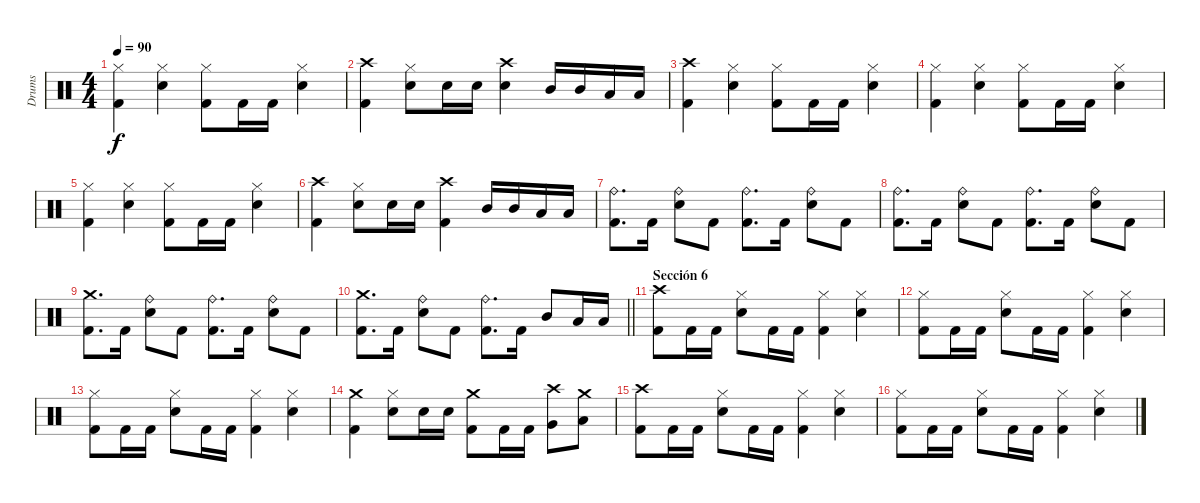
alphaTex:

\track ("Drums" "Drums") {instrument percussion}
\staff {score}
\articulation defaults
\ts (4 4)
\tempo 90
\clef neutral
\ks c
("Hi-Hat (closed)" "Kick (hit) 2").4{dy f} ("Hi-Hat (closed)" "Snare (hit) 2").4 ("Hi-Hat (closed)" "Kick (hit) 2").8 "Kick (hit) 2".16 "Kick (hit) 2".16 ("Hi-Hat (closed)" "Snare (hit) 2").4 |
("Crash high (hit)" "Kick (hit) 2").4 ("Hi-Hat (closed)" "Snare (hit) 2").8 "Snare (hit) 2".16 "Snare (hit) 2".16 ("Crash high (hit)" "Snare (hit) 2").4 "Mid Tom (hit)".16 "Mid Tom (hit)".16 "Low Tom (hit)".16 "Low Tom (hit)".16 |
("Crash high (hit)" "Kick (hit) 2").4 ("Hi-Hat (closed)" "Snare (hit) 2").4 ("Hi-Hat (closed)" "Kick (hit) 2").8 "Kick (hit) 2".16 "Kick (hit) 2".16 ("Hi-Hat (closed)" "Snare (hit) 2").4 |
("Hi-Hat (closed)" "Kick (hit) 2").4 ("Hi-Hat (closed)" "Snare (hit) 2").4 ("Hi-Hat (closed)" "Kick (hit) 2").8 "Kick (hit) 2".16 "Kick (hit) 2".16 ("Hi-Hat (closed)" "Snare (hit) 2").4 |
("Hi-Hat (closed)" "Kick (hit) 2").4 ("Hi-Hat (closed)" "Snare (hit) 2").4 ("Hi-Hat (closed)" "Kick (hit) 2").8 "Kick (hit) 2".16 "Kick (hit) 2".16 ("Hi-Hat (closed)" "Snare (hit) 2").4 |
("Crash high (hit)" "Kick (hit) 2").4 ("Hi-Hat (closed)" "Snare (hit) 2").8 "Snare (hit) 2".16 "Snare (hit) 2".16 ("Crash high (hit)" "Kick (hit) 2").4 "Mid Tom (hit)".16 "Mid Tom (hit)".16 "Low Tom (hit)".16 "Low Tom (hit)".16 |
("Ride (bell)" "Kick (hit) 2").8{d} "Kick (hit) 2".16 ("Ride (bell)" "Snare (hit) 2").8 "Kick (hit) 2".8 ("Ride (bell)" "Kick (hit) 2").8{d} "Kick (hit) 2".16 ("Ride (bell)" "Snare (hit) 2").8 "Kick (hit) 2".8 |
("Ride (bell)" "Kick (hit) 2").8{d} "Kick (hit) 2".16 ("Ride (bell)" "Snare (hit) 2").8 "Kick (hit) 2".8 ("Ride (bell)" "Kick (hit) 2").8{d} "Kick (hit) 2".16 ("Ride (bell)" "Snare (hit) 2").8 "Kick (hit) 2".8 |
("Crash medium (hit)" "Kick (hit) 2").8{d} "Kick (hit) 2".16 ("Ride (bell)" "Snare (hit) 2").8 "Kick (hit) 2".8 ("Ride (bell)" "Kick (hit) 2").8{d} "Kick (hit) 2".16 ("Ride (bell)" "Snare (hit) 2").8 "Kick (hit) 2".8 |
\barLineRight lightlight
("Crash medium (hit)" "Kick (hit) 2").8{d} "Kick (hit) 2".16 ("Ride (bell)" "Snare (hit) 2").8 "Kick (hit) 2".8 ("Ride (bell)" "Kick (hit) 2").8{d} "Kick (hit) 2".16 "Mid Tom (hit)".8 "Low Tom (hit)".16 "Low Tom (hit)".16 |
\section ("" "Sección 6")
("Crash high (hit)" "Kick (hit) 2").8 "Kick (hit) 2".16 "Kick (hit) 2".16 ("Hi-Hat (closed)" "Snare (hit) 2").8 "Kick (hit) 2".16 "Kick (hit) 2".16 ("Hi-Hat (closed)" "Kick (hit) 2").4 ("Hi-Hat (closed)" "Snare (hit) 2").4 |
("Hi-Hat (closed)" "Kick (hit) 2").8 "Kick (hit) 2".16 "Kick (hit) 2".16 ("Hi-Hat (closed)" "Snare (hit) 2").8 "Kick (hit) 2".16 "Kick (hit) 2".16 ("Hi-Hat (closed)" "Kick (hit) 2").4 ("Hi-Hat (closed)" "Snare (hit) 2").4 |
("Hi-Hat (closed)" "Kick (hit) 2").8 "Kick (hit) 2".16 "Kick (hit) 2".16 ("Hi-Hat (closed)" "Snare (hit) 2").8 "Kick (hit) 2".16 "Kick (hit) 2".16 ("Hi-Hat (closed)" "Kick (hit) 2").4 ("Hi-Hat (closed)" "Snare (hit) 2").4 |
("Crash medium (hit)" "Kick (hit) 2").4 ("Hi-Hat (closed)" "Snare (hit) 2").8 "Snare (hit) 2".16 "Snare (hit) 2".16 ("Crash medium (hit)" "Kick (hit) 2").8 "Kick (hit) 2".16 "Kick (hit) 2".16 ("Crash high (hit)" "Very Low Tom (hit)").8 ("Crash medium (hit)" "Low Floor Tom (hit)").8 |
("Crash high (hit)" "Kick (hit) 2").8 "Kick (hit) 2".16 "Kick (hit) 2".16 ("Hi-Hat (closed)" "Snare (hit) 2").8 "Kick (hit) 2".16 "Kick (hit) 2".16 ("Hi-Hat (closed)" "Kick (hit) 2").4 ("Hi-Hat (closed)" "Snare (hit) 2").4 |
("Hi-Hat (closed)" "Kick (hit) 2").8 "Kick (hit) 2".16 "Kick (hit) 2".16 ("Hi-Hat (closed)" "Snare (hit) 2").8 "Kick (hit) 2".16 "Kick (hit) 2".16 ("Hi-Hat (closed)" "Kick (hit) 2").4 ("Hi-Hat (closed)" "Snare (hit) 2").4
